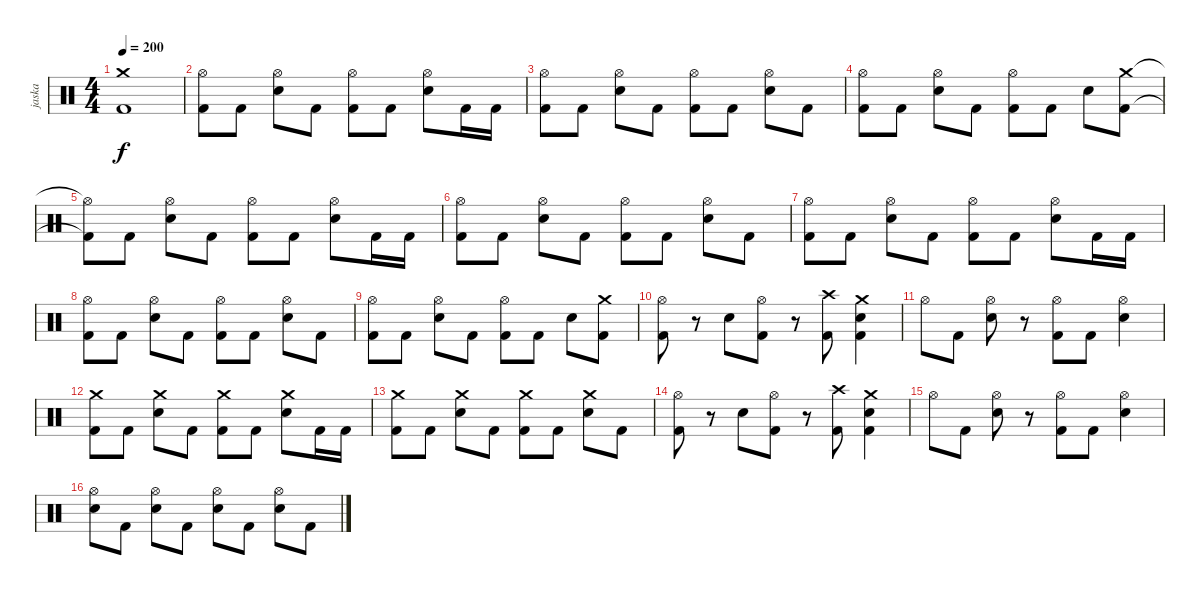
\track ("jaska" "jaska") {instrument percussion}
\staff {score}
\articulation defaults
\ts (4 4)
\tempo 200
\clef neutral
\ks c
("Crash medium (hit)" "Kick (hit) 2").1{dy f} |
("Hi-Hat (open)" "Kick (hit) 2").8 "Kick (hit) 2".8 ("Hi-Hat (open)" "Snare (hit) 2").8 "Kick (hit) 2".8 ("Hi-Hat (open)" "Kick (hit) 2").8 "Kick (hit) 2".8 ("Hi-Hat (open)" "Snare (hit) 2").8 "Kick (hit) 2".16 "Kick (hit) 2".16 |
("Hi-Hat (open)" "Kick (hit) 2").8 "Kick (hit) 2".8 ("Hi-Hat (open)" "Snare (hit) 2").8 "Kick (hit) 2".8 ("Hi-Hat (open)" "Kick (hit) 2").8 "Kick (hit) 2".8 ("Hi-Hat (open)" "Snare (hit) 2").8 "Kick (hit) 2".8 |
("Hi-Hat (open)" "Kick (hit) 2").8 "Kick (hit) 2".8 ("Hi-Hat (open)" "Snare (hit) 2").8 "Kick (hit) 2".8 ("Hi-Hat (open)" "Kick (hit) 2").8 "Kick (hit) 2".8 "Snare (hit) 2".8 ("Crash medium (hit)" "Kick (hit) 2").8 |
("Hi-Hat (open)"{t} "Kick (hit) 2"{t}).8 "Kick (hit) 2".8 ("Hi-Hat (open)" "Snare (hit) 2").8 "Kick (hit) 2".8 ("Hi-Hat (open)" "Kick (hit) 2").8 "Kick (hit) 2".8 ("Hi-Hat (open)" "Snare (hit) 2").8 "Kick (hit) 2".16 "Kick (hit) 2".16 |
("Hi-Hat (open)" "Kick (hit) 2").8 "Kick (hit) 2".8 ("Hi-Hat (open)" "Snare (hit) 2").8 "Kick (hit) 2".8 ("Hi-Hat (open)" "Kick (hit) 2").8 "Kick (hit) 2".8 ("Hi-Hat (open)" "Snare (hit) 2").8 "Kick (hit) 2".8 |
("Hi-Hat (open)" "Kick (hit) 2").8 "Kick (hit) 2".8 ("Hi-Hat (open)" "Snare (hit) 2").8 "Kick (hit) 2".8 ("Hi-Hat (open)" "Kick (hit) 2").8 "Kick (hit) 2".8 ("Hi-Hat (open)" "Snare (hit) 2").8 "Kick (hit) 2".16 "Kick (hit) 2".16 |
("Hi-Hat (open)" "Kick (hit) 2").8 "Kick (hit) 2".8 ("Hi-Hat (open)" "Snare (hit) 2").8 "Kick (hit) 2".8 ("Hi-Hat (open)" "Kick (hit) 2").8 "Kick (hit) 2".8 ("Hi-Hat (open)" "Snare (hit) 2").8 "Kick (hit) 2".8 |
("Hi-Hat (open)" "Kick (hit) 2").8 "Kick (hit) 2".8 ("Hi-Hat (open)" "Snare (hit) 2").8 "Kick (hit) 2".8 ("Hi-Hat (open)" "Kick (hit) 2").8 "Kick (hit) 2".8 "Snare (hit) 2".8 ("Crash medium (hit)" "Kick (hit) 2").8 |
("Hi-Hat (open)" "Kick (hit) 2").8 r.8 "Snare (hit) 2".8 ("Hi-Hat (open)" "Kick (hit) 2").8 r.8 ("Crash high (hit)" "Kick (hit) 2").8 ("Crash medium (hit)" "Snare (hit) 2" "Kick (hit) 2").4 |
"Hi-Hat (open)".8 "Kick (hit) 2".8 ("Hi-Hat (open)" "Snare (hit) 2").8 r.8 ("Hi-Hat (open)" "Kick (hit) 2").8 "Kick (hit) 2".8 ("Hi-Hat (open)" "Snare (hit) 2").4 |
("Crash medium (hit)" "Kick (hit) 2").8 "Kick (hit) 2".8 ("Crash medium (hit)" "Snare (hit) 2").8 "Kick (hit) 2".8 ("Crash medium (hit)" "Kick (hit) 2").8 "Kick (hit) 2".8 ("Crash medium (hit)" "Snare (hit) 2").8 "Kick (hit) 2".16 "Kick (hit) 2".16 |
("Crash medium (hit)" "Kick (hit) 2").8 "Kick (hit) 2".8 ("Crash medium (hit)" "Snare (hit) 2").8 "Kick (hit) 2".8 ("Crash medium (hit)" "Kick (hit) 2").8 "Kick (hit) 2".8 ("Crash medium (hit)" "Snare (hit) 2").8 "Kick (hit) 2".8 |
("Hi-Hat (open)" "Kick (hit) 2").8 r.8 "Snare (hit) 2".8 ("Hi-Hat (open)" "Kick (hit) 2").8 r.8 ("Crash high (hit)" "Kick (hit) 2").8 ("Crash medium (hit)" "Snare (hit) 2" "Kick (hit) 2").4 |
"Hi-Hat (open)".8 "Kick (hit) 2".8 ("Hi-Hat (open)" "Snare (hit) 2").8 r.8 ("Hi-Hat (open)" "Kick (hit) 2").8 "Kick (hit) 2".8 ("Hi-Hat (open)" "Snare (hit) 2").4 |
("Hi-Hat (open)" "Snare (hit) 2").8 "Kick (hit) 2".8 ("Hi-Hat (open)" "Snare (hit) 2").8 "Kick (hit) 2".8 ("Hi-Hat (open)" "Snare (hit) 2").8 "Kick (hit) 2".8 ("Hi-Hat (open)" "Snare (hit) 2").8 "Kick (hit) 2".8
